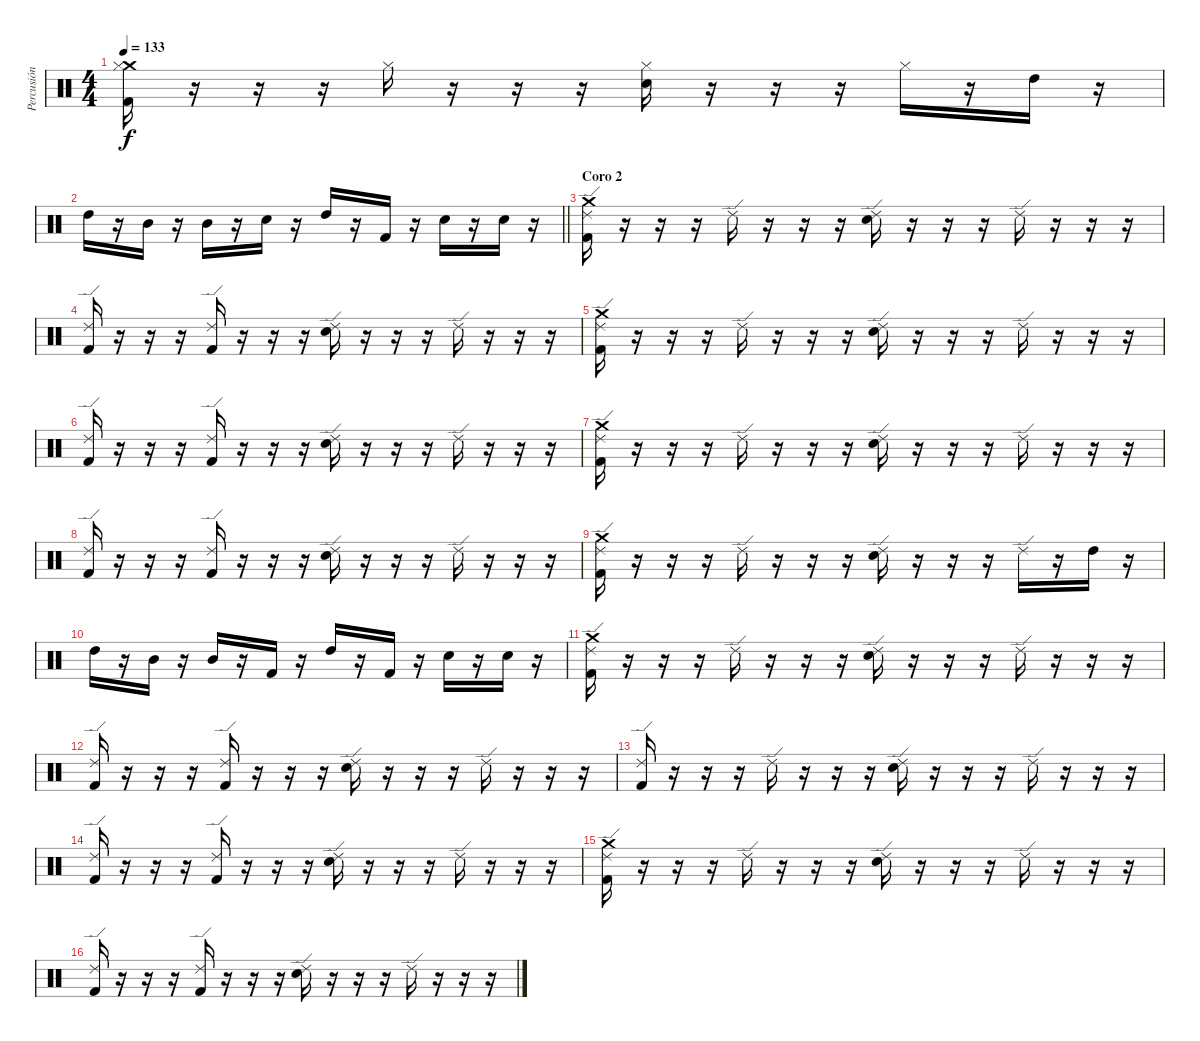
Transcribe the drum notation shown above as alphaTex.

\track ("Percusión" "Percusión") {instrument percussion}
\staff {score}
\articulation defaults
\ts (4 4)
\tempo 133
\clef neutral
\ks c
("Crash medium (hit)" "Hi-Hat (closed)" "Kick (hit) 2").16{dy f} r.16 r.16 r.16 "Hi-Hat (closed)".16 r.16 r.16 r.16 ("Hi-Hat (closed)" "Snare (hit) 2").16 r.16 r.16 r.16 "Hi-Hat (closed)".16 r.16 "High Tom (hit)".16 r.16 |
\barLineRight lightlight "High Tom (hit)".16
r.16 "Mid Tom (hit)".16 r.16 "Mid Tom (hit)".16 r.16 "Snare (hit) 2".16 r.16 "High Tom (hit)".16 r.16 "Kick (hit) 2".16 r.16 "Snare (hit) 2".16 r.16 "Snare (hit) 2".16 r.16 |
\section ("" "Coro 2")
("Crash medium (hit)" "Ride (edge) 2" "Kick (hit) 2").16 r.16 r.16 r.16 "Ride (edge) 2".16 r.16 r.16 r.16 ("Ride (edge) 2" "Snare (hit) 2").16 r.16 r.16 r.16 "Ride (edge) 2".16 r.16 r.16 r.16 |
("Ride (edge) 2" "Kick (hit) 2").16 r.16 r.16 r.16 ("Ride (edge) 2" "Kick (hit) 2").16 r.16 r.16 r.16 ("Ride (edge) 2" "Snare (hit) 2").16 r.16 r.16 r.16 "Ride (edge) 2".16 r.16 r.16 r.16 |
("Crash medium (hit)" "Ride (edge) 2" "Kick (hit) 2").16 r.16 r.16 r.16 "Ride (edge) 2".16 r.16 r.16 r.16 ("Ride (edge) 2" "Snare (hit) 2").16 r.16 r.16 r.16 "Ride (edge) 2".16 r.16 r.16 r.16 |
("Ride (edge) 2" "Kick (hit) 2").16 r.16 r.16 r.16 ("Ride (edge) 2" "Kick (hit) 2").16 r.16 r.16 r.16 ("Ride (edge) 2" "Snare (hit) 2").16 r.16 r.16 r.16 "Ride (edge) 2".16 r.16 r.16 r.16 |
("Crash medium (hit)" "Ride (edge) 2" "Kick (hit) 2").16 r.16 r.16 r.16 "Ride (edge) 2".16 r.16 r.16 r.16 ("Ride (edge) 2" "Snare (hit) 2").16 r.16 r.16 r.16 "Ride (edge) 2".16 r.16 r.16 r.16 |
("Ride (edge) 2" "Kick (hit) 2").16 r.16 r.16 r.16 ("Ride (edge) 2" "Kick (hit) 2").16 r.16 r.16 r.16 ("Ride (edge) 2" "Snare (hit) 2").16 r.16 r.16 r.16 "Ride (edge) 2".16 r.16 r.16 r.16 |
("Crash medium (hit)" "Ride (edge) 2" "Kick (hit) 2").16 r.16 r.16 r.16 "Ride (edge) 2".16 r.16 r.16 r.16 ("Ride (edge) 2" "Snare (hit) 2").16 r.16 r.16 r.16 "Ride (edge) 2".16 r.16 "High Tom (hit)".16 r.16 |
"High Tom (hit)".16 r.16 "Mid Tom (hit)".16 r.16 "Mid Tom (hit)".16 r.16 "Kick (hit) 2".16 r.16 "High Tom (hit)".16 r.16 "Kick (hit) 2".16 r.16 "Snare (hit) 2".16 r.16 "Snare (hit) 2".16 r.16 |
("Crash medium (hit)" "Ride (edge) 2" "Kick (hit) 2").16 r.16 r.16 r.16 "Ride (edge) 2".16 r.16 r.16 r.16 ("Ride (edge) 2" "Snare (hit) 2").16 r.16 r.16 r.16 "Ride (edge) 2".16 r.16 r.16 r.16 |
("Ride (edge) 2" "Kick (hit) 2").16 r.16 r.16 r.16 ("Ride (edge) 2" "Kick (hit) 2").16 r.16 r.16 r.16 ("Ride (edge) 2" "Snare (hit) 2").16 r.16 r.16 r.16 "Ride (edge) 2".16 r.16 r.16 r.16 |
("Ride (edge) 2" "Kick (hit) 2").16 r.16 r.16 r.16 "Ride (edge) 2".16 r.16 r.16 r.16 ("Ride (edge) 2" "Snare (hit) 2").16 r.16 r.16 r.16 "Ride (edge) 2".16 r.16 r.16 r.16 |
("Ride (edge) 2" "Kick (hit) 2").16 r.16 r.16 r.16 ("Ride (edge) 2" "Kick (hit) 2").16 r.16 r.16 r.16 ("Ride (edge) 2" "Snare (hit) 2").16 r.16 r.16 r.16 "Ride (edge) 2".16 r.16 r.16 r.16 |
("Crash medium (hit)" "Ride (edge) 2" "Kick (hit) 2").16 r.16 r.16 r.16 "Ride (edge) 2".16 r.16 r.16 r.16 ("Ride (edge) 2" "Snare (hit) 2").16 r.16 r.16 r.16 "Ride (edge) 2".16 r.16 r.16 r.16 |
("Ride (edge) 2" "Kick (hit) 2").16 r.16 r.16 r.16 ("Ride (edge) 2" "Kick (hit) 2").16 r.16 r.16 r.16 ("Ride (edge) 2" "Snare (hit) 2").16 r.16 r.16 r.16 "Ride (edge) 2".16 r.16 r.16 r.16
